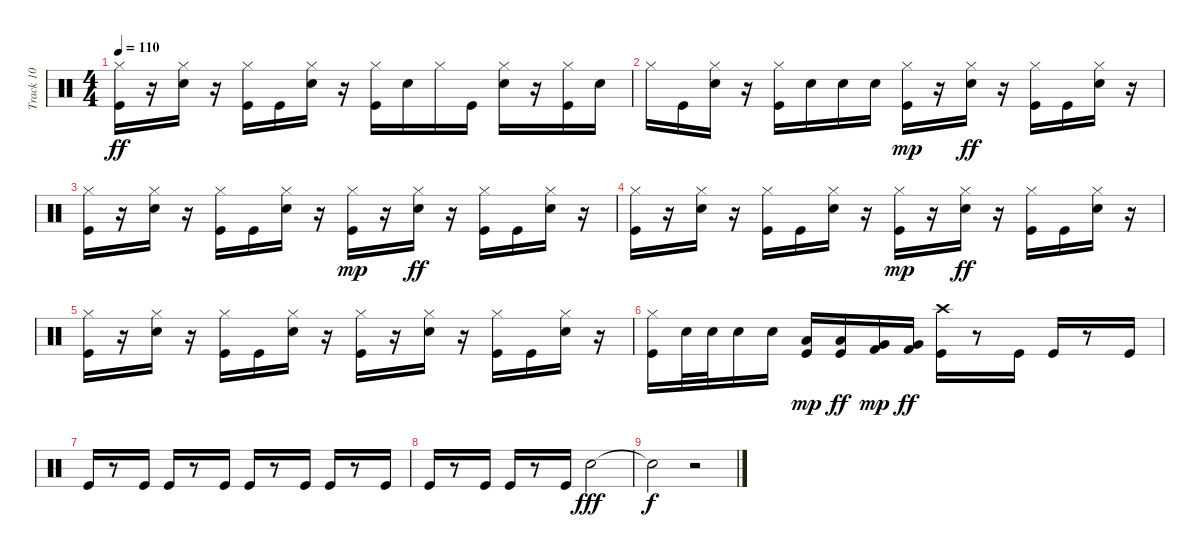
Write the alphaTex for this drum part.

\track ("Track 10" "Track 10") {instrument percussion}
\staff {score}
\articulation defaults
\ts (4 4)
\tempo 110
\clef neutral
\ks c
("Kick (hit)" "Hi-Hat (closed)").16{dy ff} r.16 ("Electric Snare (hit)" "Hi-Hat (closed)").16 r.16 ("Kick (hit)" "Hi-Hat (closed)").16 "Kick (hit)".16 ("Electric Snare (hit)" "Hi-Hat (closed)").16 r.16 ("Kick (hit)" "Hi-Hat (closed)").16 "Electric Snare (hit)".16 "Hi-Hat (closed)".16 "Kick (hit)".16 ("Electric Snare (hit)" "Hi-Hat (closed)").16 r.16 ("Kick (hit)" "Hi-Hat (closed)").16 "Electric Snare (hit)".16 |
"Hi-Hat (closed)".16 "Kick (hit)".16 ("Electric Snare (hit)" "Hi-Hat (closed)").16 r.16 ("Kick (hit)" "Hi-Hat (closed)").16 "Electric Snare (hit)".16 "Electric Snare (hit)".16 "Electric Snare (hit)".16 ("Kick (hit)" "Hi-Hat (closed)").16{dy mp} r.16 ("Electric Snare (hit)" "Hi-Hat (closed)").16{dy ff} r.16 ("Kick (hit)" "Hi-Hat (closed)").16 "Kick (hit)".16 ("Electric Snare (hit)" "Hi-Hat (closed)").16 r.16 |
("Kick (hit)" "Hi-Hat (closed)").16 r.16 ("Electric Snare (hit)" "Hi-Hat (closed)").16 r.16 ("Kick (hit)" "Hi-Hat (closed)").16 "Kick (hit)".16 ("Electric Snare (hit)" "Hi-Hat (closed)").16 r.16 ("Kick (hit)" "Hi-Hat (closed)").16{dy mp} r.16 ("Electric Snare (hit)" "Hi-Hat (closed)").16{dy ff} r.16 ("Kick (hit)" "Hi-Hat (closed)").16 "Kick (hit)".16 ("Electric Snare (hit)" "Hi-Hat (closed)").16 r.16 |
("Kick (hit)" "Hi-Hat (closed)").16 r.16 ("Electric Snare (hit)" "Hi-Hat (closed)").16 r.16 ("Kick (hit)" "Hi-Hat (closed)").16 "Kick (hit)".16 ("Electric Snare (hit)" "Hi-Hat (closed)").16 r.16 ("Kick (hit)" "Hi-Hat (closed)").16{dy mp} r.16 ("Electric Snare (hit)" "Hi-Hat (closed)").16{dy ff} r.16 ("Kick (hit)" "Hi-Hat (closed)").16 "Kick (hit)".16 ("Electric Snare (hit)" "Hi-Hat (closed)").16 r.16 |
("Kick (hit)" "Hi-Hat (closed)").16 r.16 ("Electric Snare (hit)" "Hi-Hat (closed)").16 r.16 ("Kick (hit)" "Hi-Hat (closed)").16 "Kick (hit)".16 ("Electric Snare (hit)" "Hi-Hat (closed)").16 r.16 ("Kick (hit)" "Hi-Hat (closed)").16 r.16 ("Electric Snare (hit)" "Hi-Hat (closed)").16 r.16 ("Kick (hit)" "Hi-Hat (closed)").16 "Kick (hit)".16 ("Electric Snare (hit)" "Hi-Hat (closed)").16 r.16 |
("Kick (hit)" "Hi-Hat (closed)").16 "Electric Snare (hit)".32 "Electric Snare (hit)".32 "Electric Snare (hit)".16 "Electric Snare (hit)".16 ("Low Tom (hit)" "Kick (hit)").16{dy mp} ("Low Tom (hit)" "Kick (hit)").16{dy ff} ("Very Low Tom (hit)" "Kick (hit) 2").16{dy mp} ("Very Low Tom (hit)" "Kick (hit) 2").16{dy ff} ("Kick (hit)" "Crash high (hit)").16 r.8 "Kick (hit)".16 "Kick (hit)".16 r.8 "Kick (hit)".16 |
"Kick (hit)".16 r.8 "Kick (hit)".16 "Kick (hit)".16 r.8 "Kick (hit)".16 "Kick (hit)".16 r.8 "Kick (hit)".16 "Kick (hit)".16 r.8 "Kick (hit)".16 |
"Kick (hit)".16 r.8 "Kick (hit)".16 "Kick (hit)".16 r.8 "Kick (hit)".16 "Electric Snare (hit)".2{dy fff} |
"Snare (hit)"{t}.2{dy f} r.2
